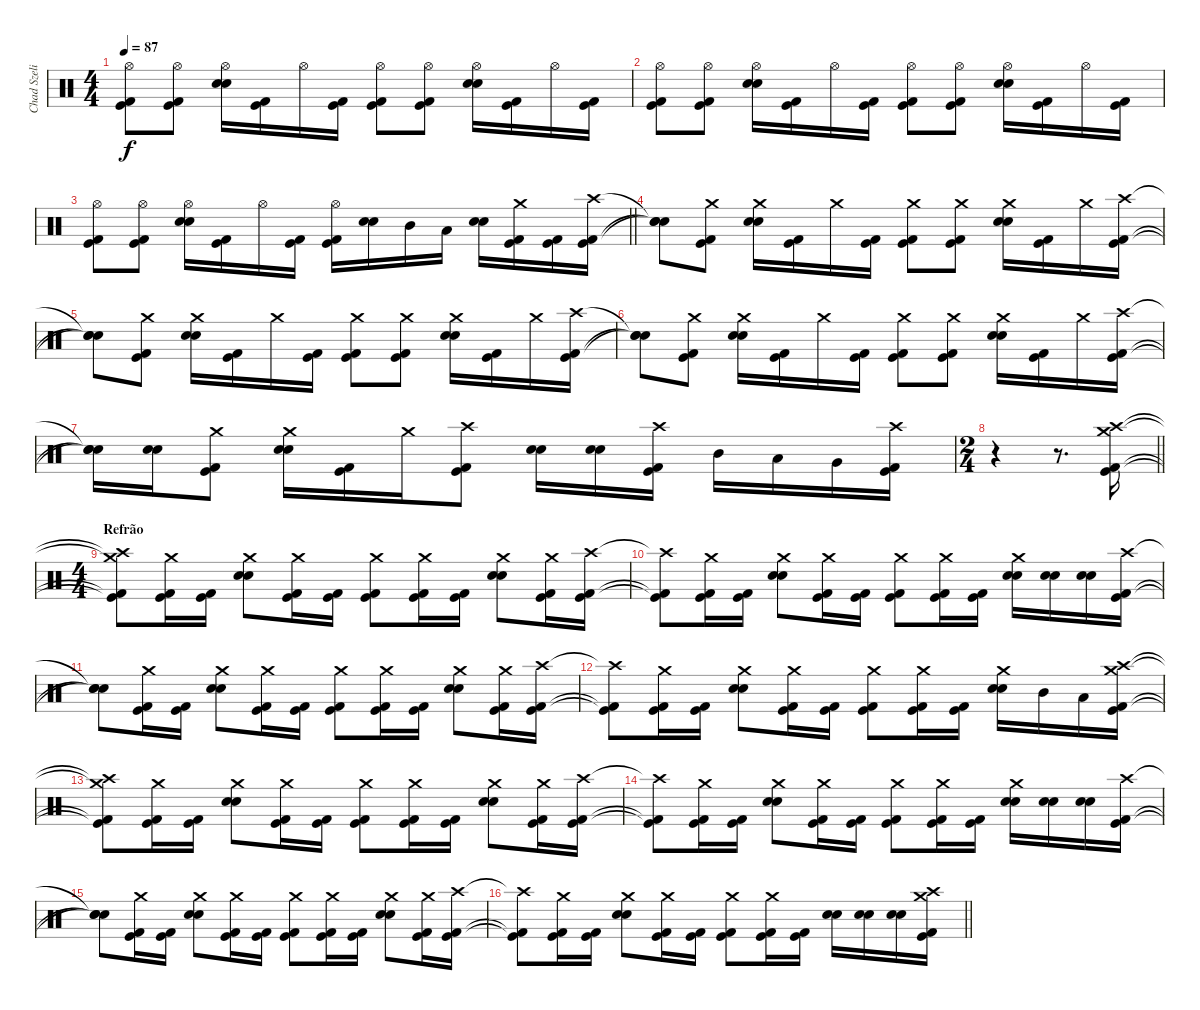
\track ("Chad Szeliga" "Chad Szeli") {instrument percussion}
\staff {score}
\articulation defaults
\ts (4 4)
\tempo 87
\clef neutral
\ks c
("Kick (hit) 2" "Kick (hit)" "Hi-Hat (open)").8{dy f} ("Kick (hit) 2" "Kick (hit)" "Hi-Hat (open)").8 ("Snare (hit) 2" "Snare (hit) 2" "Hi-Hat (open)").16 ("Kick (hit) 2" "Kick (hit)").16 "Hi-Hat (open)".16 ("Kick (hit) 2" "Kick (hit)").16 ("Kick (hit) 2" "Kick (hit)" "Hi-Hat (open)").8 ("Kick (hit) 2" "Kick (hit)" "Hi-Hat (open)").8 ("Snare (hit) 2" "Snare (hit) 2" "Hi-Hat (open)").16 ("Kick (hit) 2" "Kick (hit)").16 "Hi-Hat (open)".16 ("Kick (hit) 2" "Kick (hit)").16 |
("Kick (hit) 2" "Kick (hit)" "Hi-Hat (open)").8 ("Kick (hit) 2" "Kick (hit)" "Hi-Hat (open)").8 ("Snare (hit) 2" "Snare (hit) 2" "Hi-Hat (open)").16 ("Kick (hit) 2" "Kick (hit)").16 "Hi-Hat (open)".16 ("Kick (hit) 2" "Kick (hit)").16 ("Kick (hit) 2" "Kick (hit)" "Hi-Hat (open)").8 ("Kick (hit) 2" "Kick (hit)" "Hi-Hat (open)").8 ("Snare (hit) 2" "Snare (hit) 2" "Hi-Hat (open)").16 ("Kick (hit) 2" "Kick (hit)").16 "Hi-Hat (open)".16 ("Kick (hit) 2" "Kick (hit)").16 |
\barLineRight lightlight
("Kick (hit) 2" "Kick (hit)" "Hi-Hat (open)").8 ("Kick (hit) 2" "Kick (hit)" "Hi-Hat (open)").8 ("Snare (hit) 2" "Snare (hit) 2" "Hi-Hat (open)").16 ("Kick (hit) 2" "Kick (hit)").16 "Hi-Hat (open)".16 ("Kick (hit) 2" "Kick (hit)").16 ("Kick (hit) 2" "Kick (hit)" "Hi-Hat (open)").16 ("Snare (hit) 2" "Snare (hit) 2").16 "Mid Tom (hit)".16 "Low Tom (hit)".16 ("Snare (hit) 2" "Snare (hit) 2").16 ("Crash medium (hit)" "Kick (hit) 2" "Kick (hit)").16 ("Kick (hit) 2" "Kick (hit)").16 ("Crash high (hit)" "Kick (hit) 2" "Kick (hit)").16 |
("Snare (hit)"{t} "Snare (hit)"{t} "Snare (hit)"{t}).8 ("Crash medium (hit)" "Kick (hit) 2" "Kick (hit)").8 ("Crash medium (hit)" "Snare (hit) 2" "Snare (hit) 2").16 ("Kick (hit) 2" "Kick (hit)").16 "Crash medium (hit)".16 ("Kick (hit) 2" "Kick (hit)").16 ("Crash medium (hit)" "Kick (hit) 2" "Kick (hit)").8 ("Crash medium (hit)" "Kick (hit) 2" "Kick (hit)").8 ("Crash medium (hit)" "Snare (hit) 2" "Snare (hit) 2").16 ("Kick (hit) 2" "Kick (hit)").16 "Crash medium (hit)".16 ("Crash high (hit)" "Kick (hit) 2" "Kick (hit)").16 |
("Snare (hit)"{t} "Snare (hit)"{t} "Snare (hit)"{t}).8 ("Crash medium (hit)" "Kick (hit) 2" "Kick (hit)").8 ("Crash medium (hit)" "Snare (hit) 2" "Snare (hit) 2").16 ("Kick (hit) 2" "Kick (hit)").16 "Crash medium (hit)".16 ("Kick (hit) 2" "Kick (hit)").16 ("Crash medium (hit)" "Kick (hit) 2" "Kick (hit)").8 ("Crash medium (hit)" "Kick (hit) 2" "Kick (hit)").8 ("Crash medium (hit)" "Snare (hit) 2" "Snare (hit) 2").16 ("Kick (hit) 2" "Kick (hit)").16 "Crash medium (hit)".16 ("Crash high (hit)" "Kick (hit) 2" "Kick (hit)").16 |
("Snare (hit)"{t} "Snare (hit)"{t} "Snare (hit)"{t}).8 ("Crash medium (hit)" "Kick (hit) 2" "Kick (hit)").8 ("Crash medium (hit)" "Snare (hit) 2" "Snare (hit) 2").16 ("Kick (hit) 2" "Kick (hit)").16 "Crash medium (hit)".16 ("Kick (hit) 2" "Kick (hit)").16 ("Crash medium (hit)" "Kick (hit) 2" "Kick (hit)").8 ("Crash medium (hit)" "Kick (hit) 2" "Kick (hit)").8 ("Crash medium (hit)" "Snare (hit) 2" "Snare (hit) 2").16 ("Kick (hit) 2" "Kick (hit)").16 "Crash medium (hit)".16 ("Crash high (hit)" "Kick (hit) 2" "Kick (hit)").16 |
("Snare (hit)"{t} "Snare (hit)"{t} "Snare (hit)"{t}).16 ("Snare (hit) 2" "Snare (hit) 2").16 ("Crash medium (hit)" "Kick (hit) 2" "Kick (hit)").8 ("Crash medium (hit)" "Snare (hit) 2" "Snare (hit) 2").16 ("Kick (hit) 2" "Kick (hit)").16 "Crash medium (hit)".16 ("Crash high (hit)" "Kick (hit) 2" "Kick (hit)").8 ("Snare (hit) 2" "Snare (hit) 2").16 ("Snare (hit) 2" "Snare (hit) 2").16 ("Crash high (hit)" "Kick (hit) 2" "Kick (hit)").16 "Mid Tom (hit)".16 "Low Tom (hit)".16 "Very Low Tom (hit)".16 ("Crash high (hit)" "Kick (hit) 2" "Kick (hit)").16 |
\ts (2 4)
\barLineRight lightlight
r.4 r.8{d} ("Crash high (hit)" "Kick (hit) 2" "Kick (hit)" "Crash medium (hit)").16 |
\ts (4 4)
\section ("" "Refrão")
("Crash high (hit)"{t} "Kick (hit) 2"{t} "Kick (hit)"{t} "Crash medium (hit)"{t}).8 ("Crash medium (hit)" "Kick (hit) 2" "Kick (hit)").16 ("Kick (hit) 2" "Kick (hit)").16 ("Crash medium (hit)" "Snare (hit) 2" "Snare (hit) 2").8 ("Crash medium (hit)" "Kick (hit) 2" "Kick (hit)").16 ("Kick (hit) 2" "Kick (hit)").16 ("Crash medium (hit)" "Kick (hit) 2" "Kick (hit)").8 ("Crash medium (hit)" "Kick (hit) 2" "Kick (hit)").16 ("Kick (hit) 2" "Kick (hit)").16 ("Crash medium (hit)" "Snare (hit) 2" "Snare (hit) 2").8 ("Crash medium (hit)" "Kick (hit) 2" "Kick (hit)").16 ("Crash high (hit)" "Kick (hit) 2" "Kick (hit)").16 |
("Crash high (hit)"{t} "Kick (hit) 2"{t} "Kick (hit)"{t}).8 ("Crash medium (hit)" "Kick (hit) 2" "Kick (hit)").16 ("Kick (hit) 2" "Kick (hit)").16 ("Crash medium (hit)" "Snare (hit) 2" "Snare (hit) 2").8 ("Crash medium (hit)" "Kick (hit) 2" "Kick (hit)").16 ("Kick (hit) 2" "Kick (hit)").16 ("Crash medium (hit)" "Kick (hit) 2" "Kick (hit)").8 ("Crash medium (hit)" "Kick (hit) 2" "Kick (hit)").16 ("Kick (hit) 2" "Kick (hit)").16 ("Crash medium (hit)" "Snare (hit) 2" "Snare (hit) 2").16 ("Snare (hit) 2" "Snare (hit) 2").16 ("Snare (hit) 2" "Snare (hit) 2").16 ("Crash high (hit)" "Kick (hit) 2" "Kick (hit)").16 |
("Snare (hit)"{t} "Snare (hit)"{t} "Snare (hit)"{t}).8 ("Crash medium (hit)" "Kick (hit) 2" "Kick (hit)").16 ("Kick (hit) 2" "Kick (hit)").16 ("Crash medium (hit)" "Snare (hit) 2" "Snare (hit) 2").8 ("Crash medium (hit)" "Kick (hit) 2" "Kick (hit)").16 ("Kick (hit) 2" "Kick (hit)").16 ("Crash medium (hit)" "Kick (hit) 2" "Kick (hit)").8 ("Crash medium (hit)" "Kick (hit) 2" "Kick (hit)").16 ("Kick (hit) 2" "Kick (hit)").16 ("Crash medium (hit)" "Snare (hit) 2" "Snare (hit) 2").8 ("Crash medium (hit)" "Kick (hit) 2" "Kick (hit)").16 ("Crash high (hit)" "Kick (hit) 2" "Kick (hit)").16 |
("Crash high (hit)"{t} "Kick (hit) 2"{t} "Kick (hit)"{t}).8 ("Crash medium (hit)" "Kick (hit) 2" "Kick (hit)").16 ("Kick (hit) 2" "Kick (hit)").16 ("Crash medium (hit)" "Snare (hit) 2" "Snare (hit) 2").8 ("Crash medium (hit)" "Kick (hit) 2" "Kick (hit)").16 ("Kick (hit) 2" "Kick (hit)").16 ("Crash medium (hit)" "Kick (hit) 2" "Kick (hit)").8 ("Crash medium (hit)" "Kick (hit) 2" "Kick (hit)").16 ("Kick (hit) 2" "Kick (hit)").16 ("Crash medium (hit)" "Snare (hit) 2" "Snare (hit) 2").16 "Mid Tom (hit)".16 "Low Tom (hit)".16 ("Crash high (hit)" "Kick (hit) 2" "Kick (hit)" "Crash medium (hit)").16 |
("Crash high (hit)"{t} "Kick (hit) 2"{t} "Kick (hit)"{t} "Crash medium (hit)"{t}).8 ("Crash medium (hit)" "Kick (hit) 2" "Kick (hit)").16 ("Kick (hit) 2" "Kick (hit)").16 ("Crash medium (hit)" "Snare (hit) 2" "Snare (hit) 2").8 ("Crash medium (hit)" "Kick (hit) 2" "Kick (hit)").16 ("Kick (hit) 2" "Kick (hit)").16 ("Crash medium (hit)" "Kick (hit) 2" "Kick (hit)").8 ("Crash medium (hit)" "Kick (hit) 2" "Kick (hit)").16 ("Kick (hit) 2" "Kick (hit)").16 ("Crash medium (hit)" "Snare (hit) 2" "Snare (hit) 2").8 ("Crash medium (hit)" "Kick (hit) 2" "Kick (hit)").16 ("Crash high (hit)" "Kick (hit) 2" "Kick (hit)").16 |
("Crash high (hit)"{t} "Kick (hit) 2"{t} "Kick (hit)"{t}).8 ("Crash medium (hit)" "Kick (hit) 2" "Kick (hit)").16 ("Kick (hit) 2" "Kick (hit)").16 ("Crash medium (hit)" "Snare (hit) 2" "Snare (hit) 2").8 ("Crash medium (hit)" "Kick (hit) 2" "Kick (hit)").16 ("Kick (hit) 2" "Kick (hit)").16 ("Crash medium (hit)" "Kick (hit) 2" "Kick (hit)").8 ("Crash medium (hit)" "Kick (hit) 2" "Kick (hit)").16 ("Kick (hit) 2" "Kick (hit)").16 ("Crash medium (hit)" "Snare (hit) 2" "Snare (hit) 2").16 ("Snare (hit) 2" "Snare (hit) 2").16 ("Snare (hit) 2" "Snare (hit) 2").16 ("Crash high (hit)" "Kick (hit) 2" "Kick (hit)").16 |
("Snare (hit)"{t} "Snare (hit)"{t} "Snare (hit)"{t}).8 ("Crash medium (hit)" "Kick (hit) 2" "Kick (hit)").16 ("Kick (hit) 2" "Kick (hit)").16 ("Crash medium (hit)" "Snare (hit) 2" "Snare (hit) 2").8 ("Crash medium (hit)" "Kick (hit) 2" "Kick (hit)").16 ("Kick (hit) 2" "Kick (hit)").16 ("Crash medium (hit)" "Kick (hit) 2" "Kick (hit)").8 ("Crash medium (hit)" "Kick (hit) 2" "Kick (hit)").16 ("Kick (hit) 2" "Kick (hit)").16 ("Crash medium (hit)" "Snare (hit) 2" "Snare (hit) 2").8 ("Crash medium (hit)" "Kick (hit) 2" "Kick (hit)").16 ("Crash high (hit)" "Kick (hit) 2" "Kick (hit)").16 |
\barLineRight lightlight
("Crash high (hit)"{t} "Kick (hit) 2"{t} "Kick (hit)"{t}).8 ("Crash medium (hit)" "Kick (hit) 2" "Kick (hit)").16 ("Kick (hit) 2" "Kick (hit)").16 ("Crash medium (hit)" "Snare (hit) 2" "Snare (hit) 2").8 ("Crash medium (hit)" "Kick (hit) 2" "Kick (hit)").16 ("Kick (hit) 2" "Kick (hit)").16 ("Crash medium (hit)" "Kick (hit) 2" "Kick (hit)").8 ("Crash medium (hit)" "Kick (hit) 2" "Kick (hit)").16 ("Kick (hit) 2" "Kick (hit)").16 ("Snare (hit) 2" "Snare (hit) 2").16 ("Snare (hit) 2" "Snare (hit) 2").16 ("Snare (hit) 2" "Snare (hit) 2").16 ("Crash high (hit)" "Kick (hit) 2" "Kick (hit)" "Crash medium (hit)").16
